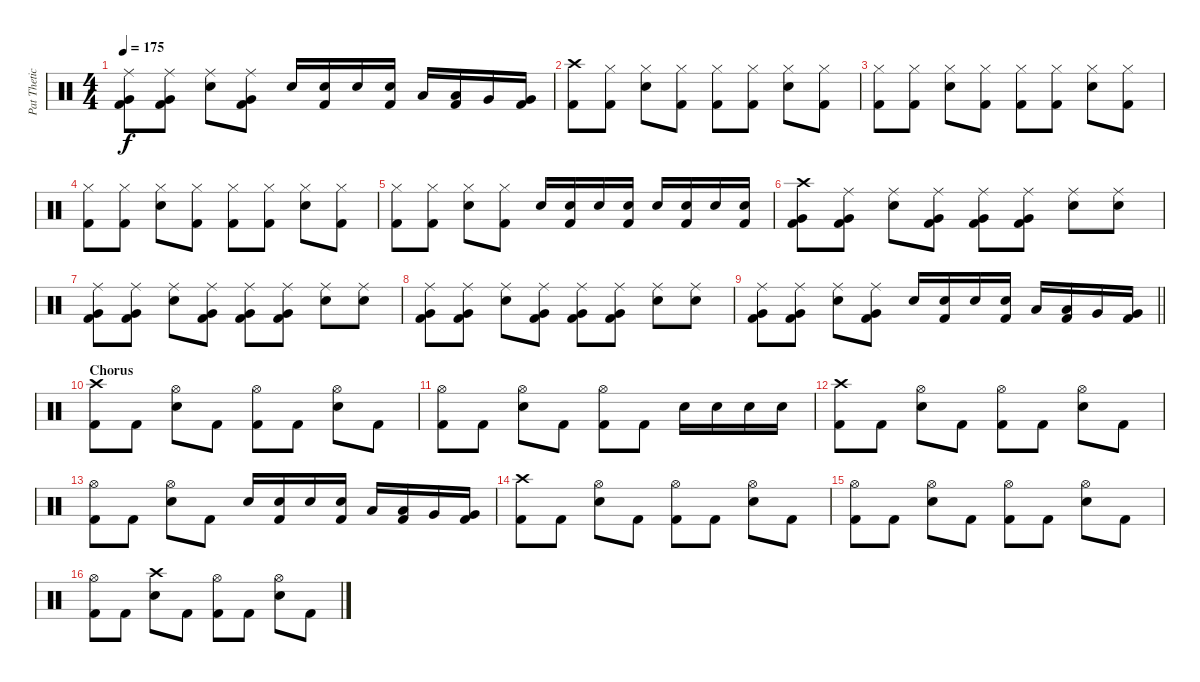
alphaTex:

\track ("Pat Thetic" "Pat Thetic") {instrument percussion}
\staff {score}
\articulation defaults
\ts (4 4)
\tempo 175
\clef neutral
\ks c
("Ride (middle)" "Very Low Tom (hit)" "Kick (hit) 2").8{dy f} ("Ride (middle)" "Very Low Tom (hit)" "Kick (hit) 2").8 ("Ride (middle)" "Electric Snare (hit)").8 ("Ride (middle)" "Very Low Tom (hit)" "Kick (hit) 2").8 "Electric Snare (hit)".16 ("Electric Snare (hit)" "Kick (hit) 2").16 "Electric Snare (hit)".16 ("Electric Snare (hit)" "Kick (hit) 2").16 "Low Tom (hit)".16 ("Low Tom (hit)" "Kick (hit) 2").16 "Very Low Tom (hit)".16 ("Very Low Tom (hit)" "Kick (hit) 2").16 |
("Crash high (hit)" "Kick (hit) 2").8 ("Hi-Hat (closed)" "Kick (hit) 2").8 ("Hi-Hat (closed)" "Electric Snare (hit)").8 ("Hi-Hat (closed)" "Kick (hit) 2").8 ("Hi-Hat (closed)" "Kick (hit) 2").8 ("Hi-Hat (closed)" "Kick (hit) 2").8 ("Hi-Hat (closed)" "Electric Snare (hit)").8 ("Hi-Hat (closed)" "Kick (hit) 2").8 |
("Hi-Hat (closed)" "Kick (hit) 2").8 ("Hi-Hat (closed)" "Kick (hit) 2").8 ("Hi-Hat (closed)" "Electric Snare (hit)").8 ("Hi-Hat (closed)" "Kick (hit) 2").8 ("Hi-Hat (closed)" "Kick (hit) 2").8 ("Hi-Hat (closed)" "Kick (hit) 2").8 ("Hi-Hat (closed)" "Electric Snare (hit)").8 ("Hi-Hat (closed)" "Kick (hit) 2").8 |
("Hi-Hat (closed)" "Kick (hit) 2").8 ("Hi-Hat (closed)" "Kick (hit) 2").8 ("Hi-Hat (closed)" "Electric Snare (hit)").8 ("Hi-Hat (closed)" "Kick (hit) 2").8 ("Hi-Hat (closed)" "Kick (hit) 2").8 ("Hi-Hat (closed)" "Kick (hit) 2").8 ("Hi-Hat (closed)" "Electric Snare (hit)").8 ("Hi-Hat (closed)" "Kick (hit) 2").8 |
("Hi-Hat (closed)" "Kick (hit) 2").8 ("Hi-Hat (closed)" "Kick (hit) 2").8 ("Hi-Hat (closed)" "Electric Snare (hit)").8 ("Hi-Hat (closed)" "Kick (hit) 2").8 "Electric Snare (hit)".16 ("Electric Snare (hit)" "Kick (hit) 2").16 "Electric Snare (hit)".16 ("Electric Snare (hit)" "Kick (hit) 2").16 "Electric Snare (hit)".16 ("Electric Snare (hit)" "Kick (hit) 2").16 "Electric Snare (hit)".16 ("Electric Snare (hit)" "Kick (hit) 2").16 |
("Crash high (hit)" "Very Low Tom (hit)" "Kick (hit) 2").8 ("Ride (middle)" "Very Low Tom (hit)" "Kick (hit) 2").8 ("Ride (middle)" "Electric Snare (hit)").8 ("Ride (middle)" "Very Low Tom (hit)" "Kick (hit) 2").8 ("Ride (middle)" "Very Low Tom (hit)" "Kick (hit) 2").8 ("Ride (middle)" "Very Low Tom (hit)" "Kick (hit) 2").8 ("Ride (middle)" "Electric Snare (hit)").8 ("Ride (middle)" "Electric Snare (hit)").8 |
("Ride (middle)" "Very Low Tom (hit)" "Kick (hit) 2").8 ("Ride (middle)" "Very Low Tom (hit)" "Kick (hit) 2").8 ("Ride (middle)" "Electric Snare (hit)").8 ("Ride (middle)" "Very Low Tom (hit)" "Kick (hit) 2").8 ("Ride (middle)" "Very Low Tom (hit)" "Kick (hit) 2").8 ("Ride (middle)" "Very Low Tom (hit)" "Kick (hit) 2").8 ("Ride (middle)" "Electric Snare (hit)").8 ("Ride (middle)" "Electric Snare (hit)").8 |
("Ride (middle)" "Very Low Tom (hit)" "Kick (hit) 2").8 ("Ride (middle)" "Very Low Tom (hit)" "Kick (hit) 2").8 ("Ride (middle)" "Electric Snare (hit)").8 ("Ride (middle)" "Very Low Tom (hit)" "Kick (hit) 2").8 ("Ride (middle)" "Very Low Tom (hit)" "Kick (hit) 2").8 ("Ride (middle)" "Very Low Tom (hit)" "Kick (hit) 2").8 ("Ride (middle)" "Electric Snare (hit)").8 ("Ride (middle)" "Electric Snare (hit)").8 |
\barLineRight lightlight
("Ride (middle)" "Very Low Tom (hit)" "Kick (hit) 2").8 ("Ride (middle)" "Very Low Tom (hit)" "Kick (hit) 2").8 ("Ride (middle)" "Electric Snare (hit)").8 ("Ride (middle)" "Very Low Tom (hit)" "Kick (hit) 2").8 "Electric Snare (hit)".16 ("Electric Snare (hit)" "Kick (hit) 2").16 "Electric Snare (hit)".16 ("Electric Snare (hit)" "Kick (hit) 2").16 "Low Tom (hit)".16 ("Low Tom (hit)" "Kick (hit) 2").16 "Very Low Tom (hit)".16 ("Very Low Tom (hit)" "Kick (hit) 2").16 |
\section ("" "Chorus")
("Crash high (hit)" "Kick (hit) 2").8 "Kick (hit) 2".8 ("Hi-Hat (open)" "Electric Snare (hit)").8 "Kick (hit) 2".8 ("Hi-Hat (open)" "Kick (hit) 2").8 "Kick (hit) 2".8 ("Hi-Hat (open)" "Electric Snare (hit)").8 "Kick (hit) 2".8 |
("Hi-Hat (open)" "Kick (hit) 2").8 "Kick (hit) 2".8 ("Hi-Hat (open)" "Electric Snare (hit)").8 "Kick (hit) 2".8 ("Hi-Hat (open)" "Kick (hit) 2").8 "Kick (hit) 2".8 "Electric Snare (hit)".16 "Electric Snare (hit)".16 "Electric Snare (hit)".16 "Electric Snare (hit)".16 |
("Crash high (hit)" "Kick (hit) 2").8 "Kick (hit) 2".8 ("Hi-Hat (open)" "Electric Snare (hit)").8 "Kick (hit) 2".8 ("Hi-Hat (open)" "Kick (hit) 2").8 "Kick (hit) 2".8 ("Hi-Hat (open)" "Electric Snare (hit)").8 "Kick (hit) 2".8 |
("Hi-Hat (open)" "Kick (hit) 2").8 "Kick (hit) 2".8 ("Hi-Hat (open)" "Electric Snare (hit)").8 "Kick (hit) 2".8 "Electric Snare (hit)".16 ("Electric Snare (hit)" "Kick (hit) 2").16 "Electric Snare (hit)".16 ("Electric Snare (hit)" "Kick (hit) 2").16 "Low Tom (hit)".16 ("Low Tom (hit)" "Kick (hit) 2").16 "Very Low Tom (hit)".16 ("Very Low Tom (hit)" "Kick (hit) 2").16 |
("Crash high (hit)" "Kick (hit) 2").8 "Kick (hit) 2".8 ("Hi-Hat (open)" "Electric Snare (hit)").8 "Kick (hit) 2".8 ("Hi-Hat (open)" "Kick (hit) 2").8 "Kick (hit) 2".8 ("Hi-Hat (open)" "Electric Snare (hit)").8 "Kick (hit) 2".8 |
("Hi-Hat (open)" "Kick (hit) 2").8 "Kick (hit) 2".8 ("Hi-Hat (open)" "Electric Snare (hit)").8 "Kick (hit) 2".8 ("Hi-Hat (open)" "Kick (hit) 2").8 "Kick (hit) 2".8 ("Hi-Hat (open)" "Electric Snare (hit)").8 "Kick (hit) 2".8 |
("Hi-Hat (open)" "Kick (hit) 2").8 "Kick (hit) 2".8 ("Crash high (hit)" "Electric Snare (hit)").8 "Kick (hit) 2".8 ("Hi-Hat (open)" "Kick (hit) 2").8 "Kick (hit) 2".8 ("Hi-Hat (open)" "Electric Snare (hit)").8 "Kick (hit) 2".8
